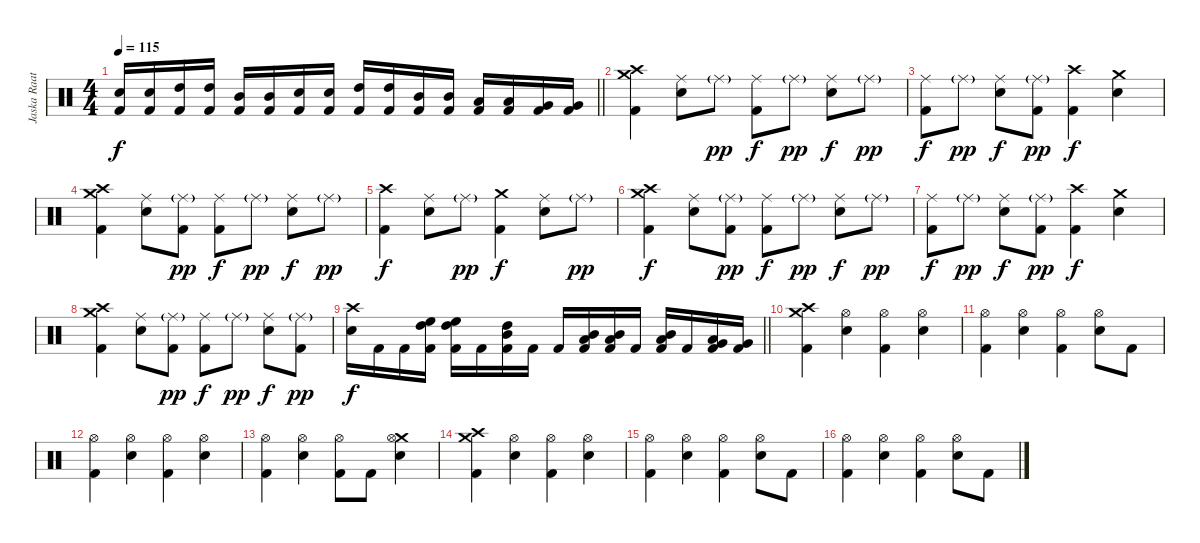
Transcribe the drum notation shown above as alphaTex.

\track ("Jaska Raatikainen" "Jaska Raat") {instrument percussion}
\staff {score}
\articulation defaults
\ts (4 4)
\tempo 115
\clef neutral
\barLineRight lightlight
\ks c
("Electric Snare (hit)" "Kick (hit) 2").16{dy f} ("Electric Snare (hit)" "Kick (hit) 2").16 ("High Tom (hit)" "Kick (hit) 2").16 ("High Tom (hit)" "Kick (hit) 2").16 ("Mid Tom (hit)" "Kick (hit) 2").16 ("Mid Tom (hit)" "Kick (hit) 2").16 ("Electric Snare (hit)" "Kick (hit) 2").16 ("Electric Snare (hit)" "Kick (hit) 2").16 ("High Tom (hit)" "Kick (hit) 2").16 ("High Tom (hit)" "Kick (hit) 2").16 ("Mid Tom (hit)" "Kick (hit) 2").16 ("Mid Tom (hit)" "Kick (hit) 2").16 ("Low Tom (hit)" "Kick (hit) 2").16 ("Low Tom (hit)" "Kick (hit) 2").16 ("Very Low Tom (hit)" "Kick (hit) 2").16 ("Very Low Tom (hit)" "Kick (hit) 2").16 |
("Crash high (hit)" "Crash medium (hit)" "Kick (hit) 2").4 ("Ride (middle)" "Electric Snare (hit)").8 "Ride (middle)"{g}.8{dy pp} ("Ride (middle)" "Kick (hit) 2").8{dy f} "Ride (middle)"{g}.8{dy pp} ("Ride (middle)" "Electric Snare (hit)").8{dy f} "Ride (middle)"{g}.8{dy pp} |
("Ride (middle)" "Kick (hit) 2").8{dy f} "Ride (middle)"{g}.8{dy pp} ("Ride (middle)" "Electric Snare (hit)").8{dy f} ("Ride (middle)"{g} "Kick (hit) 2").8{dy pp} ("Crash high (hit)" "Kick (hit) 2").4{dy f} ("Crash medium (hit)" "Electric Snare (hit)").4 |
("Crash high (hit)" "Crash medium (hit)" "Kick (hit) 2").4 ("Ride (middle)" "Electric Snare (hit)").8 ("Ride (middle)"{g} "Kick (hit) 2").8{dy pp} ("Ride (middle)" "Kick (hit) 2").8{dy f} "Ride (middle)"{g}.8{dy pp} ("Ride (middle)" "Electric Snare (hit)").8{dy f} "Ride (middle)"{g}.8{dy pp} |
("Crash high (hit)" "Kick (hit) 2").4{dy f} ("Ride (middle)" "Electric Snare (hit)").8 "Ride (middle)"{g}.8{dy pp} ("Crash medium (hit)" "Kick (hit) 2").4{dy f} ("Ride (middle)" "Electric Snare (hit)").8 "Ride (middle)"{g}.8{dy pp} |
("Crash high (hit)" "Crash medium (hit)" "Kick (hit) 2").4{dy f} ("Ride (middle)" "Electric Snare (hit)").8 ("Ride (middle)"{g} "Kick (hit) 2").8{dy pp} ("Ride (middle)" "Kick (hit) 2").8{dy f} "Ride (middle)"{g}.8{dy pp} ("Ride (middle)" "Electric Snare (hit)").8{dy f} "Ride (middle)"{g}.8{dy pp} |
("Ride (middle)" "Kick (hit) 2").8{dy f} "Ride (middle)"{g}.8{dy pp} ("Ride (middle)" "Electric Snare (hit)").8{dy f} ("Ride (middle)"{g} "Kick (hit) 2").8{dy pp} ("Crash high (hit)" "Kick (hit) 2").4{dy f} ("Crash medium (hit)" "Electric Snare (hit)").4 |
("Crash high (hit)" "Crash medium (hit)" "Kick (hit) 2").4 ("Ride (middle)" "Electric Snare (hit)").8 ("Ride (middle)"{g} "Kick (hit) 2").8{dy pp} ("Ride (middle)" "Kick (hit) 2").8{dy f} "Ride (middle)"{g}.8{dy pp} ("Ride (middle)" "Electric Snare (hit)").8{dy f} ("Ride (middle)"{g} "Kick (hit) 2").8{dy pp} |
\barLineRight lightlight
("Crash high (hit)" "Electric Snare (hit)").16{dy f} "Kick (hit) 2".16 "Kick (hit) 2".16 ("High Floor Tom (hit)" "High Tom (hit)" "Kick (hit) 2").16 ("High Floor Tom (hit)" "High Tom (hit)" "Kick (hit) 2").16 "Kick (hit) 2".16 ("High Tom (hit)" "Mid Tom (hit)" "Kick (hit) 2").16 "Kick (hit) 2".16 "Kick (hit) 2".16 ("Mid Tom (hit)" "Low Tom (hit)" "Kick (hit) 2").16 ("Mid Tom (hit)" "Low Tom (hit)" "Kick (hit) 2").16 "Kick (hit) 2".16 ("Mid Tom (hit)" "Low Tom (hit)" "Kick (hit) 2").16 "Kick (hit) 2".16 ("Low Tom (hit)" "Very Low Tom (hit)" "Kick (hit) 2").16 ("Very Low Tom (hit)" "Kick (hit) 2").16 |
("Crash high (hit)" "Crash medium (hit)" "Kick (hit) 2").4 ("Hi-Hat (open)" "Electric Snare (hit)").4 ("Hi-Hat (open)" "Kick (hit) 2").4 ("Hi-Hat (open)" "Electric Snare (hit)").4 |
("Hi-Hat (open)" "Kick (hit) 2").4 ("Hi-Hat (open)" "Electric Snare (hit)").4 ("Hi-Hat (open)" "Kick (hit) 2").4 ("Hi-Hat (open)" "Electric Snare (hit)").8 "Kick (hit) 2".8 |
("Hi-Hat (open)" "Kick (hit) 2").4 ("Hi-Hat (open)" "Electric Snare (hit)").4 ("Hi-Hat (open)" "Kick (hit) 2").4 ("Hi-Hat (open)" "Electric Snare (hit)").4 |
("Hi-Hat (open)" "Kick (hit) 2").4 ("Hi-Hat (open)" "Electric Snare (hit)").4 ("Hi-Hat (open)" "Kick (hit) 2").8 "Kick (hit) 2".8 ("Crash medium (hit)" "Hi-Hat (open)" "Electric Snare (hit)").4 |
("Crash high (hit)" "Crash medium (hit)" "Kick (hit) 2").4 ("Hi-Hat (open)" "Electric Snare (hit)").4 ("Hi-Hat (open)" "Kick (hit) 2").4 ("Hi-Hat (open)" "Electric Snare (hit)").4 |
("Hi-Hat (open)" "Kick (hit) 2").4 ("Hi-Hat (open)" "Electric Snare (hit)").4 ("Hi-Hat (open)" "Kick (hit) 2").4 ("Hi-Hat (open)" "Electric Snare (hit)").8 "Kick (hit) 2".8 |
("Hi-Hat (open)" "Kick (hit) 2").4 ("Hi-Hat (open)" "Electric Snare (hit)").4 ("Hi-Hat (open)" "Kick (hit) 2").4 ("Hi-Hat (open)" "Electric Snare (hit)").8 "Kick (hit) 2".8
